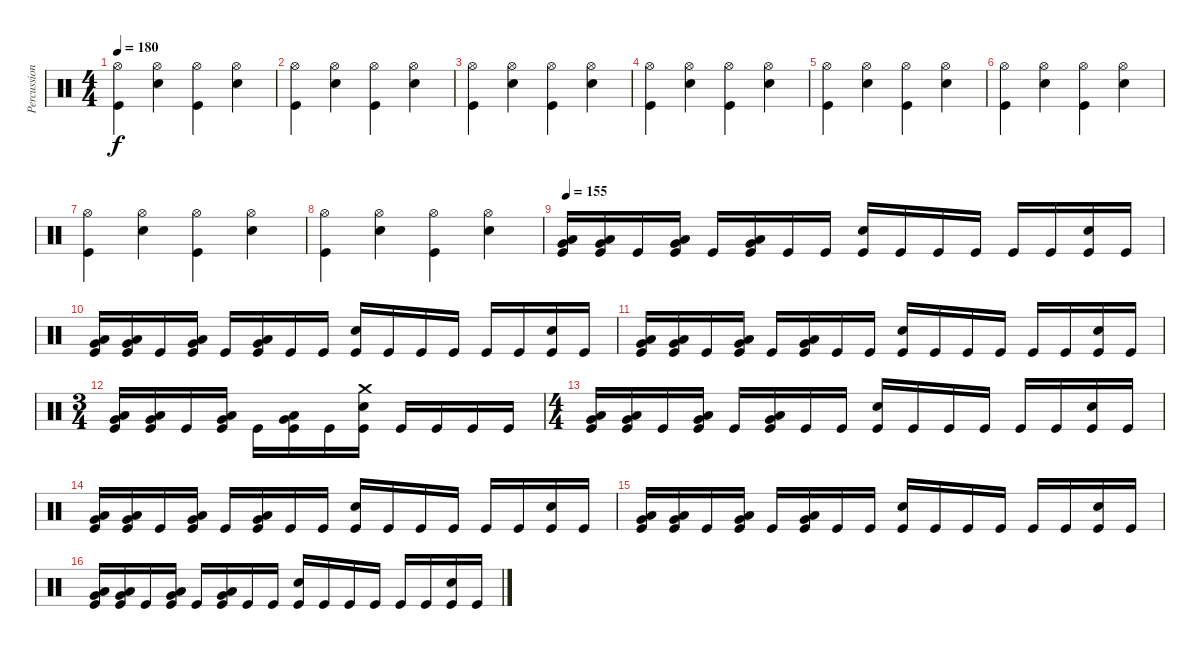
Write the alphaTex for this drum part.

\track ("Percussions" "Percussion") {instrument percussion}
\staff {score}
\articulation defaults
\ts (4 4)
\tempo 180
\clef neutral
\ks c
("Kick (hit)" "Hi-Hat (open)").4{dy f} ("Electric Snare (hit)" "Hi-Hat (open)").4 ("Kick (hit)" "Hi-Hat (open)").4 ("Electric Snare (hit)" "Hi-Hat (open)").4 |
("Kick (hit)" "Hi-Hat (open)").4 ("Electric Snare (hit)" "Hi-Hat (open)").4 ("Kick (hit)" "Hi-Hat (open)").4 ("Electric Snare (hit)" "Hi-Hat (open)").4 |
("Kick (hit)" "Hi-Hat (open)").4 ("Electric Snare (hit)" "Hi-Hat (open)").4 ("Kick (hit)" "Hi-Hat (open)").4 ("Electric Snare (hit)" "Hi-Hat (open)").4 |
("Kick (hit)" "Hi-Hat (open)").4 ("Electric Snare (hit)" "Hi-Hat (open)").4 ("Kick (hit)" "Hi-Hat (open)").4 ("Electric Snare (hit)" "Hi-Hat (open)").4 |
("Kick (hit)" "Hi-Hat (open)").4 ("Electric Snare (hit)" "Hi-Hat (open)").4 ("Kick (hit)" "Hi-Hat (open)").4 ("Electric Snare (hit)" "Hi-Hat (open)").4 |
("Kick (hit)" "Hi-Hat (open)").4 ("Electric Snare (hit)" "Hi-Hat (open)").4 ("Kick (hit)" "Hi-Hat (open)").4 ("Electric Snare (hit)" "Hi-Hat (open)").4 |
("Kick (hit)" "Hi-Hat (open)").4 ("Electric Snare (hit)" "Hi-Hat (open)").4 ("Kick (hit)" "Hi-Hat (open)").4 ("Electric Snare (hit)" "Hi-Hat (open)").4 |
("Kick (hit)" "Hi-Hat (open)").4 ("Electric Snare (hit)" "Hi-Hat (open)").4 ("Kick (hit)" "Hi-Hat (open)").4 ("Electric Snare (hit)" "Hi-Hat (open)").4 |
\tempo 155
("Kick (hit)" "Very Low Tom (hit)" "Low Floor Tom (hit)").16 ("Kick (hit)" "Very Low Tom (hit)" "Low Floor Tom (hit)").16 "Kick (hit)".16 ("Kick (hit)" "Very Low Tom (hit)" "Low Floor Tom (hit)").16 "Kick (hit)".16 ("Kick (hit)" "Very Low Tom (hit)" "Low Floor Tom (hit)").16 "Kick (hit)".16 "Kick (hit)".16 ("Kick (hit)" "Electric Snare (hit)").16 "Kick (hit)".16 "Kick (hit)".16 "Kick (hit)".16 "Kick (hit)".16 "Kick (hit)".16 ("Kick (hit)" "Electric Snare (hit)").16 "Kick (hit)".16 |
("Kick (hit)" "Very Low Tom (hit)" "Low Floor Tom (hit)").16 ("Kick (hit)" "Very Low Tom (hit)" "Low Floor Tom (hit)").16 "Kick (hit)".16 ("Kick (hit)" "Very Low Tom (hit)" "Low Floor Tom (hit)").16 "Kick (hit)".16 ("Kick (hit)" "Very Low Tom (hit)" "Low Floor Tom (hit)").16 "Kick (hit)".16 "Kick (hit)".16 ("Kick (hit)" "Electric Snare (hit)").16 "Kick (hit)".16 "Kick (hit)".16 "Kick (hit)".16 "Kick (hit)".16 "Kick (hit)".16 ("Kick (hit)" "Electric Snare (hit)").16 "Kick (hit)".16 |
("Kick (hit)" "Very Low Tom (hit)" "Low Floor Tom (hit)").16 ("Kick (hit)" "Very Low Tom (hit)" "Low Floor Tom (hit)").16 "Kick (hit)".16 ("Kick (hit)" "Very Low Tom (hit)" "Low Floor Tom (hit)").16 "Kick (hit)".16 ("Kick (hit)" "Very Low Tom (hit)" "Low Floor Tom (hit)").16 "Kick (hit)".16 "Kick (hit)".16 ("Kick (hit)" "Electric Snare (hit)").16 "Kick (hit)".16 "Kick (hit)".16 "Kick (hit)".16 "Kick (hit)".16 "Kick (hit)".16 ("Kick (hit)" "Electric Snare (hit)").16 "Kick (hit)".16 |
\ts (3 4)
("Kick (hit)" "Very Low Tom (hit)" "Low Floor Tom (hit)").16 ("Kick (hit)" "Very Low Tom (hit)" "Low Floor Tom (hit)").16 "Kick (hit)".16 ("Kick (hit)" "Very Low Tom (hit)" "Low Floor Tom (hit)").16 "Kick (hit)".16 ("Kick (hit)" "Very Low Tom (hit)" "Low Floor Tom (hit)").16 "Kick (hit)".16 ("Kick (hit)" "Electric Snare (hit)" "Crash medium (hit)").16 "Kick (hit)".16 "Kick (hit)".16 "Kick (hit)".16 "Kick (hit)".16 |
\ts (4 4)
("Kick (hit)" "Very Low Tom (hit)" "Low Floor Tom (hit)").16 ("Kick (hit)" "Very Low Tom (hit)" "Low Floor Tom (hit)").16 "Kick (hit)".16 ("Kick (hit)" "Very Low Tom (hit)" "Low Floor Tom (hit)").16 "Kick (hit)".16 ("Kick (hit)" "Very Low Tom (hit)" "Low Floor Tom (hit)").16 "Kick (hit)".16 "Kick (hit)".16 ("Kick (hit)" "Electric Snare (hit)").16 "Kick (hit)".16 "Kick (hit)".16 "Kick (hit)".16 "Kick (hit)".16 "Kick (hit)".16 ("Kick (hit)" "Electric Snare (hit)").16 "Kick (hit)".16 |
("Kick (hit)" "Very Low Tom (hit)" "Low Floor Tom (hit)").16 ("Kick (hit)" "Very Low Tom (hit)" "Low Floor Tom (hit)").16 "Kick (hit)".16 ("Kick (hit)" "Very Low Tom (hit)" "Low Floor Tom (hit)").16 "Kick (hit)".16 ("Kick (hit)" "Very Low Tom (hit)" "Low Floor Tom (hit)").16 "Kick (hit)".16 "Kick (hit)".16 ("Kick (hit)" "Electric Snare (hit)").16 "Kick (hit)".16 "Kick (hit)".16 "Kick (hit)".16 "Kick (hit)".16 "Kick (hit)".16 ("Kick (hit)" "Electric Snare (hit)").16 "Kick (hit)".16 |
("Kick (hit)" "Very Low Tom (hit)" "Low Floor Tom (hit)").16 ("Kick (hit)" "Very Low Tom (hit)" "Low Floor Tom (hit)").16 "Kick (hit)".16 ("Kick (hit)" "Very Low Tom (hit)" "Low Floor Tom (hit)").16 "Kick (hit)".16 ("Kick (hit)" "Very Low Tom (hit)" "Low Floor Tom (hit)").16 "Kick (hit)".16 "Kick (hit)".16 ("Kick (hit)" "Electric Snare (hit)").16 "Kick (hit)".16 "Kick (hit)".16 "Kick (hit)".16 "Kick (hit)".16 "Kick (hit)".16 ("Kick (hit)" "Electric Snare (hit)").16 "Kick (hit)".16 |
("Kick (hit)" "Very Low Tom (hit)" "Low Floor Tom (hit)").16 ("Kick (hit)" "Very Low Tom (hit)" "Low Floor Tom (hit)").16 "Kick (hit)".16 ("Kick (hit)" "Very Low Tom (hit)" "Low Floor Tom (hit)").16 "Kick (hit)".16 ("Kick (hit)" "Very Low Tom (hit)" "Low Floor Tom (hit)").16 "Kick (hit)".16 "Kick (hit)".16 ("Kick (hit)" "Electric Snare (hit)").16 "Kick (hit)".16 "Kick (hit)".16 "Kick (hit)".16 "Kick (hit)".16 "Kick (hit)".16 ("Kick (hit)" "Electric Snare (hit)").16 "Kick (hit)".16
